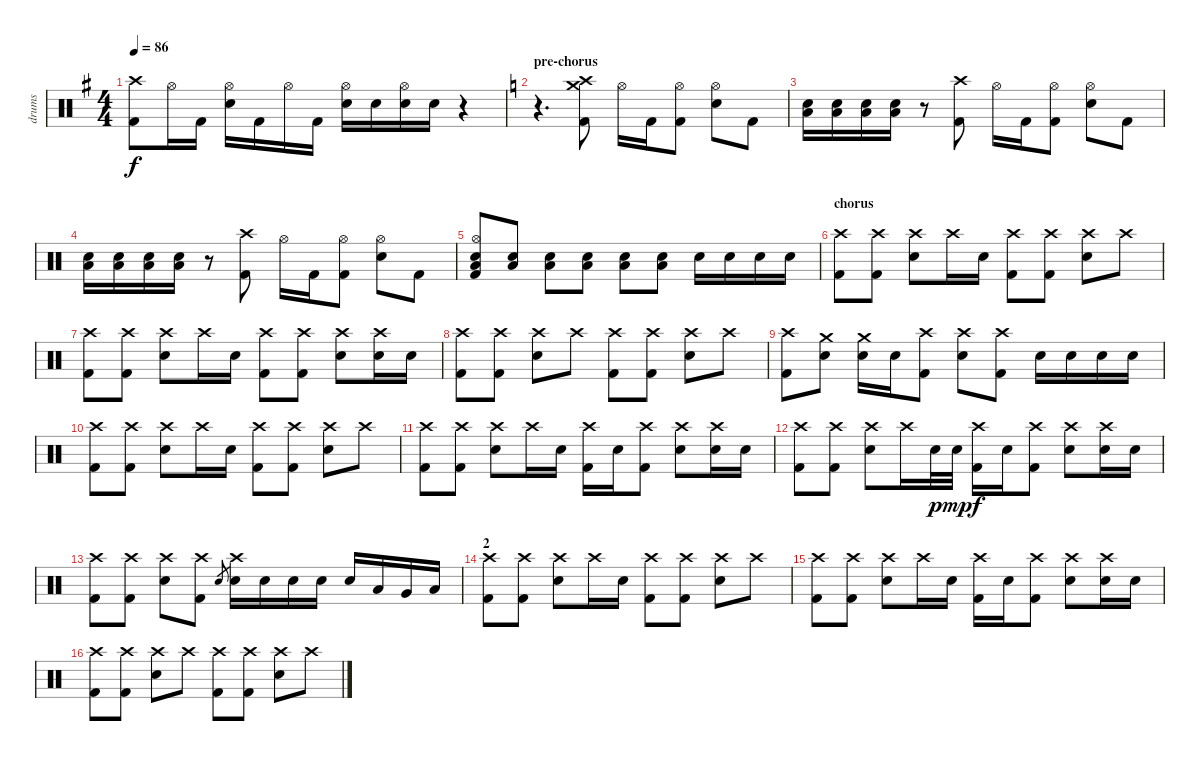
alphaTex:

\track ("drums" "drums") {instrument percussion}
\staff {score}
\articulation defaults
\ts (4 4)
\tempo 86
\clef neutral
\ks eminor
("Crash high (hit)" "Kick (hit) 2").8{dy f} "Hi-Hat (open)".16 "Kick (hit) 2".16 ("Hi-Hat (open)" "Electric Snare (hit)").16 "Kick (hit) 2".16 "Hi-Hat (open)".16 "Kick (hit) 2".16 ("Hi-Hat (open)" "Electric Snare (hit)").16 "Electric Snare (hit)".16 ("Hi-Hat (open)" "Electric Snare (hit)").16 "Electric Snare (hit)".16 r.4 |
\section ("" "pre-chorus")
\ks c
r.4{d} ("Crash high (hit)" "Crash medium (hit)" "Kick (hit) 2").8 "Hi-Hat (open)".16 "Kick (hit) 2".16 ("Hi-Hat (open)" "Kick (hit) 2").8 ("Hi-Hat (open)" "Electric Snare (hit)").8 "Kick (hit) 2".8 |
("Electric Snare (hit)" "Low Floor Tom (hit)").16 ("Electric Snare (hit)" "Low Floor Tom (hit)").16 ("Electric Snare (hit)" "Low Floor Tom (hit)").16 ("Electric Snare (hit)" "Low Floor Tom (hit)").16 r.8 ("Crash high (hit)" "Kick (hit) 2").8 "Hi-Hat (open)".16 "Kick (hit) 2".16 ("Hi-Hat (open)" "Kick (hit) 2").8 ("Hi-Hat (open)" "Electric Snare (hit)").8 "Kick (hit) 2".8 |
("Electric Snare (hit)" "Low Floor Tom (hit)").16 ("Electric Snare (hit)" "Low Floor Tom (hit)").16 ("Electric Snare (hit)" "Low Floor Tom (hit)").16 ("Electric Snare (hit)" "Low Floor Tom (hit)").16 r.8 ("Crash high (hit)" "Kick (hit) 2").8 "Hi-Hat (open)".16 "Kick (hit) 2".16 ("Hi-Hat (open)" "Kick (hit) 2").8 ("Hi-Hat (open)" "Electric Snare (hit)").8 "Kick (hit) 2".8 |
("Hi-Hat (open)" "Electric Snare (hit)" "Low Floor Tom (hit)" "Kick (hit) 2").8 ("Electric Snare (hit)" "Low Floor Tom (hit)").8 ("Electric Snare (hit)" "Low Floor Tom (hit)").8 ("Electric Snare (hit)" "Low Floor Tom (hit)").8 ("Electric Snare (hit)" "Low Floor Tom (hit)").8 ("Electric Snare (hit)" "Low Floor Tom (hit)").8 "Electric Snare (hit)".16 "Electric Snare (hit)".16 "Electric Snare (hit)".16 "Electric Snare (hit)".16 |
\section ("" "chorus")
("Crash high (hit)" "Kick (hit) 2").8 ("Crash high (hit)" "Kick (hit) 2").8 ("Crash high (hit)" "Electric Snare (hit)").8 "Crash high (hit)".16 "Electric Snare (hit)".16 ("Crash high (hit)" "Kick (hit) 2").8 ("Crash high (hit)" "Kick (hit) 2").8 ("Crash high (hit)" "Electric Snare (hit)").8 "Crash high (hit)".8 |
("Crash high (hit)" "Kick (hit) 2").8 ("Crash high (hit)" "Kick (hit) 2").8 ("Crash high (hit)" "Electric Snare (hit)").8 "Crash high (hit)".16 "Electric Snare (hit)".16 ("Crash high (hit)" "Kick (hit) 2").8 ("Crash high (hit)" "Kick (hit) 2").8 ("Crash high (hit)" "Electric Snare (hit)").8 ("Crash high (hit)" "Electric Snare (hit)").16 "Electric Snare (hit)".16 |
("Crash high (hit)" "Kick (hit) 2").8 ("Crash high (hit)" "Kick (hit) 2").8 ("Crash high (hit)" "Electric Snare (hit)").8 "Crash high (hit)".8 ("Crash high (hit)" "Kick (hit) 2").8 ("Crash high (hit)" "Kick (hit) 2").8 ("Crash high (hit)" "Electric Snare (hit)").8 "Crash high (hit)".8 |
("Crash high (hit)" "Kick (hit) 2").8 ("Crash medium (hit)" "Electric Snare (hit)").8 ("Crash medium (hit)" "Electric Snare (hit)").16 "Electric Snare (hit)".16 ("Crash high (hit)" "Kick (hit) 2").8 ("Crash high (hit)" "Electric Snare (hit)").8 ("Crash high (hit)" "Kick (hit) 2").8 "Electric Snare (hit)".16 "Electric Snare (hit)".16 "Electric Snare (hit)".16 "Electric Snare (hit)".16 |
("Crash high (hit)" "Kick (hit) 2").8 ("Crash high (hit)" "Kick (hit) 2").8 ("Crash high (hit)" "Electric Snare (hit)").8 "Crash high (hit)".16 "Electric Snare (hit)".16 ("Crash high (hit)" "Kick (hit) 2").8 ("Crash high (hit)" "Kick (hit) 2").8 ("Crash high (hit)" "Electric Snare (hit)").8 "Crash high (hit)".8 |
("Crash high (hit)" "Kick (hit) 2").8 ("Crash high (hit)" "Kick (hit) 2").8 ("Crash high (hit)" "Electric Snare (hit)").8 "Crash high (hit)".16 "Electric Snare (hit)".16 ("Crash high (hit)" "Kick (hit) 2").16 "Electric Snare (hit)".16 ("Crash high (hit)" "Kick (hit) 2").8 ("Crash high (hit)" "Electric Snare (hit)").8 ("Crash high (hit)" "Electric Snare (hit)").16 "Electric Snare (hit)".16 |
("Crash high (hit)" "Kick (hit) 2").8 ("Crash high (hit)" "Kick (hit) 2").8 ("Crash high (hit)" "Electric Snare (hit)").8 "Crash high (hit)".16 "Electric Snare (hit)".32{dy p} "Electric Snare (hit)".32{dy mp} ("Crash high (hit)" "Kick (hit) 2").16{dy f} "Electric Snare (hit)".16 ("Crash high (hit)" "Kick (hit) 2").8 ("Crash high (hit)" "Electric Snare (hit)").8 ("Crash high (hit)" "Electric Snare (hit)").16 "Electric Snare (hit)".16 |
("Crash high (hit)" "Kick (hit) 2").8 ("Crash high (hit)" "Kick (hit) 2").8 ("Crash high (hit)" "Electric Snare (hit)").8 ("Crash high (hit)" "Kick (hit) 2").8 "Electric Snare (hit)".8{gr} ("Crash high (hit)" "Electric Snare (hit)").16 "Electric Snare (hit)".16 "Electric Snare (hit)".16 "Electric Snare (hit)".16 "Electric Snare (hit)".16 "Low Tom (hit)".16 "Very Low Tom (hit)".16 "Low Floor Tom (hit)".16 |
\section ("" "2")
("Crash high (hit)" "Kick (hit) 2").8 ("Crash high (hit)" "Kick (hit) 2").8 ("Crash high (hit)" "Electric Snare (hit)").8 "Crash high (hit)".16 "Electric Snare (hit)".16 ("Crash high (hit)" "Kick (hit) 2").8 ("Crash high (hit)" "Kick (hit) 2").8 ("Crash high (hit)" "Electric Snare (hit)").8 "Crash high (hit)".8 |
("Crash high (hit)" "Kick (hit) 2").8 ("Crash high (hit)" "Kick (hit) 2").8 ("Crash high (hit)" "Electric Snare (hit)").8 "Crash high (hit)".16 "Electric Snare (hit)".16 ("Crash high (hit)" "Kick (hit) 2").16 "Electric Snare (hit)".16 ("Crash high (hit)" "Kick (hit) 2").8 ("Crash high (hit)" "Electric Snare (hit)").8 ("Crash high (hit)" "Electric Snare (hit)").16 "Electric Snare (hit)".16 |
("Crash high (hit)" "Kick (hit) 2").8 ("Crash high (hit)" "Kick (hit) 2").8 ("Crash high (hit)" "Electric Snare (hit)").8 "Crash high (hit)".8 ("Crash high (hit)" "Kick (hit) 2").8 ("Crash high (hit)" "Kick (hit) 2").8 ("Crash high (hit)" "Electric Snare (hit)").8 "Crash high (hit)".8
